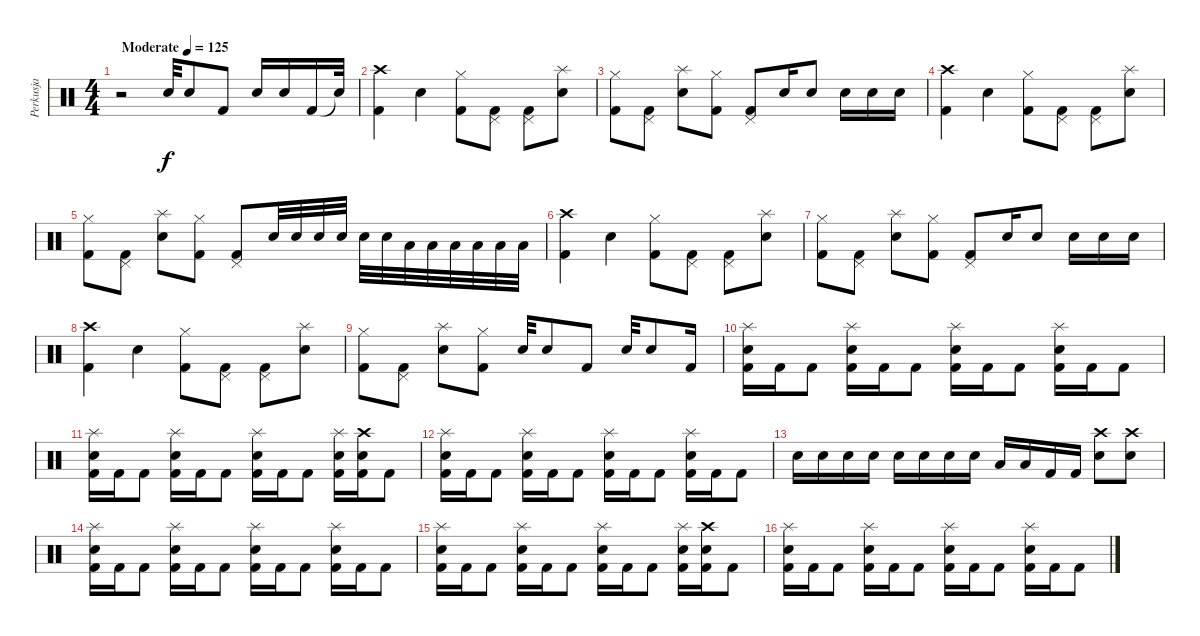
\track ("Perkusja" "Perkusja") {instrument percussion}
\staff {score}
\articulation defaults
\ts (4 4)
\tempo (125 "Moderate")
\clef neutral
\ks c
r.2{dy f} "Snare (hit) 2".32 "Snare (hit) 2".8 "Kick (hit) 2".8 "Snare (hit) 2".16 "Snare (hit) 2".16 "Kick (hit) 2".16 "Snare (hit)"{t}.32 |
("Crash high (hit)" "Kick (hit) 2").4 "Snare (hit) 2".4 ("Hi-Hat (closed)" "Kick (hit) 2").8 ("Pedal Hi-Hat (hit)" "Kick (hit) 2").8 ("Pedal Hi-Hat (hit)" "Kick (hit) 2").8 ("Splash (hit)" "Snare (hit) 2").8 |
("Hi-Hat (closed)" "Kick (hit) 2").8 ("Pedal Hi-Hat (hit)" "Kick (hit) 2").8 ("Splash (hit)" "Snare (hit) 2").8 ("Hi-Hat (closed)" "Kick (hit) 2").8 ("Pedal Hi-Hat (hit)" "Kick (hit) 2").8 "Snare (hit) 2".16 "Snare (hit) 2".8 "Snare (hit) 2".16 "Snare (hit) 2".16 "Snare (hit) 2".16 |
("Crash high (hit)" "Kick (hit) 2").4 "Snare (hit) 2".4 ("Hi-Hat (closed)" "Kick (hit) 2").8 ("Pedal Hi-Hat (hit)" "Kick (hit) 2").8 ("Pedal Hi-Hat (hit)" "Kick (hit) 2").8 ("Splash (hit)" "Snare (hit) 2").8 |
("Hi-Hat (closed)" "Kick (hit) 2").8 ("Pedal Hi-Hat (hit)" "Kick (hit) 2").8 ("Splash (hit)" "Snare (hit) 2").8 ("Hi-Hat (closed)" "Kick (hit) 2").8 ("Pedal Hi-Hat (hit)" "Kick (hit) 2").8 "Snare (hit) 2".32 "Snare (hit) 2".32 "Snare (hit) 2".32 "Snare (hit) 2".32 "Snare (hit) 2".32 "Snare (hit) 2".32 "Low Tom (hit)".32 "Low Tom (hit)".32 "Low Tom (hit)".32 "Low Tom (hit)".32 "Low Tom (hit)".32 "Low Tom (hit)".32 |
("Crash high (hit)" "Kick (hit) 2").4 "Snare (hit) 2".4 ("Hi-Hat (closed)" "Kick (hit) 2").8 ("Pedal Hi-Hat (hit)" "Kick (hit) 2").8 ("Pedal Hi-Hat (hit)" "Kick (hit) 2").8 ("Splash (hit)" "Snare (hit) 2").8 |
("Hi-Hat (closed)" "Kick (hit) 2").8 ("Pedal Hi-Hat (hit)" "Kick (hit) 2").8 ("Splash (hit)" "Snare (hit) 2").8 ("Hi-Hat (closed)" "Kick (hit) 2").8 ("Pedal Hi-Hat (hit)" "Kick (hit) 2").8 "Snare (hit) 2".16 "Snare (hit) 2".8 "Snare (hit) 2".16 "Snare (hit) 2".16 "Snare (hit) 2".16 |
("Crash high (hit)" "Kick (hit) 2").4 "Snare (hit) 2".4 ("Hi-Hat (closed)" "Kick (hit) 2").8 ("Pedal Hi-Hat (hit)" "Kick (hit) 2").8 ("Pedal Hi-Hat (hit)" "Kick (hit) 2").8 ("Splash (hit)" "Snare (hit) 2").8 |
("Hi-Hat (closed)" "Kick (hit) 2").8 ("Pedal Hi-Hat (hit)" "Kick (hit) 2").8 ("Splash (hit)" "Snare (hit) 2").8 ("Hi-Hat (closed)" "Kick (hit) 2").8 "Snare (hit) 2".32 "Snare (hit) 2".8 "Kick (hit) 2".8 "Snare (hit) 2".32 "Snare (hit) 2".8 "Kick (hit) 2".16 |
("Splash (hit)" "Snare (hit) 2" "Kick (hit) 2").16 "Kick (hit) 2".16 "Kick (hit) 2".8 ("Splash (hit)" "Snare (hit) 2" "Kick (hit) 2").16 "Kick (hit) 2".16 "Kick (hit) 2".8 ("Splash (hit)" "Snare (hit) 2" "Kick (hit) 2").16 "Kick (hit) 2".16 "Kick (hit) 2".8 ("Splash (hit)" "Snare (hit) 2" "Kick (hit) 2").16 "Kick (hit) 2".16 "Kick (hit) 2".8 |
("Splash (hit)" "Snare (hit) 2" "Kick (hit) 2").16 "Kick (hit) 2".16 "Kick (hit) 2".8 ("Splash (hit)" "Snare (hit) 2" "Kick (hit) 2").16 "Kick (hit) 2".16 "Kick (hit) 2".8 ("Splash (hit)" "Snare (hit) 2" "Kick (hit) 2").16 "Kick (hit) 2".16 "Kick (hit) 2".8 ("Splash (hit)" "Snare (hit) 2" "Kick (hit) 2").16 ("Crash high (hit)" "Snare (hit) 2" "Kick (hit) 2").16 "Kick (hit) 2".8 |
("Splash (hit)" "Snare (hit) 2" "Kick (hit) 2").16 "Kick (hit) 2".16 "Kick (hit) 2".8 ("Splash (hit)" "Snare (hit) 2" "Kick (hit) 2").16 "Kick (hit) 2".16 "Kick (hit) 2".8 ("Splash (hit)" "Snare (hit) 2" "Kick (hit) 2").16 "Kick (hit) 2".16 "Kick (hit) 2".8 ("Splash (hit)" "Snare (hit) 2" "Kick (hit) 2").16 "Kick (hit) 2".16 "Kick (hit) 2".8 |
"Snare (hit) 2".16 "Snare (hit) 2".16 "Snare (hit) 2".16 "Snare (hit) 2".16 "Snare (hit) 2".16 "Snare (hit) 2".16 "Snare (hit) 2".16 "Snare (hit) 2".16 "Low Tom (hit)".16 "Low Tom (hit)".16 "Kick (hit) 2".16 "Kick (hit) 2".16 ("Crash high (hit)" "Snare (hit) 2").8 ("Crash high (hit)" "Snare (hit) 2").8 |
("Splash (hit)" "Snare (hit) 2" "Kick (hit) 2").16 "Kick (hit) 2".16 "Kick (hit) 2".8 ("Splash (hit)" "Snare (hit) 2" "Kick (hit) 2").16 "Kick (hit) 2".16 "Kick (hit) 2".8 ("Splash (hit)" "Snare (hit) 2" "Kick (hit) 2").16 "Kick (hit) 2".16 "Kick (hit) 2".8 ("Splash (hit)" "Snare (hit) 2" "Kick (hit) 2").16 "Kick (hit) 2".16 "Kick (hit) 2".8 |
("Splash (hit)" "Snare (hit) 2" "Kick (hit) 2").16 "Kick (hit) 2".16 "Kick (hit) 2".8 ("Splash (hit)" "Snare (hit) 2" "Kick (hit) 2").16 "Kick (hit) 2".16 "Kick (hit) 2".8 ("Splash (hit)" "Snare (hit) 2" "Kick (hit) 2").16 "Kick (hit) 2".16 "Kick (hit) 2".8 ("Splash (hit)" "Snare (hit) 2" "Kick (hit) 2").16 ("Crash high (hit)" "Snare (hit) 2" "Kick (hit) 2").16 "Kick (hit) 2".8 |
("Splash (hit)" "Snare (hit) 2" "Kick (hit) 2").16 "Kick (hit) 2".16 "Kick (hit) 2".8 ("Splash (hit)" "Snare (hit) 2" "Kick (hit) 2").16 "Kick (hit) 2".16 "Kick (hit) 2".8 ("Splash (hit)" "Snare (hit) 2" "Kick (hit) 2").16 "Kick (hit) 2".16 "Kick (hit) 2".8 ("Splash (hit)" "Snare (hit) 2" "Kick (hit) 2").16 "Kick (hit) 2".16 "Kick (hit) 2".8
